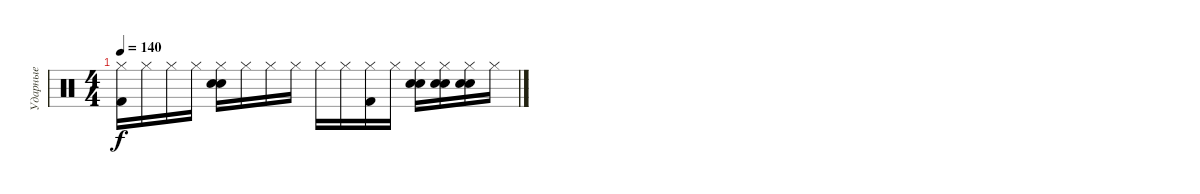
\track ("Ударные" "Ударные") {instrument percussion}
\staff {score}
\articulation defaults
\ts (4 4)
\tempo 140
\clef neutral
\ks c
("Kick (hit) 2" "Hi-Hat (closed)").16{dy f} "Hi-Hat (closed)".16 "Hi-Hat (closed)".16 "Hi-Hat (closed)".16 ("Snare (hit) 2" "Hand Clap (hit)" "Hi-Hat (closed)").16 "Hi-Hat (closed)".16 "Hi-Hat (closed)".16 "Hi-Hat (closed)".16 "Hi-Hat (closed)".16 "Hi-Hat (closed)".16 ("Kick (hit) 2" "Hi-Hat (closed)").16 "Hi-Hat (closed)".16 ("Snare (hit) 2" "Hand Clap (hit)" "Hi-Hat (closed)").16 ("Snare (hit) 2" "Hand Clap (hit)" "Hi-Hat (closed)").16 ("Snare (hit) 2" "Hand Clap (hit)" "Hi-Hat (closed)").16 "Hi-Hat (closed)".16
